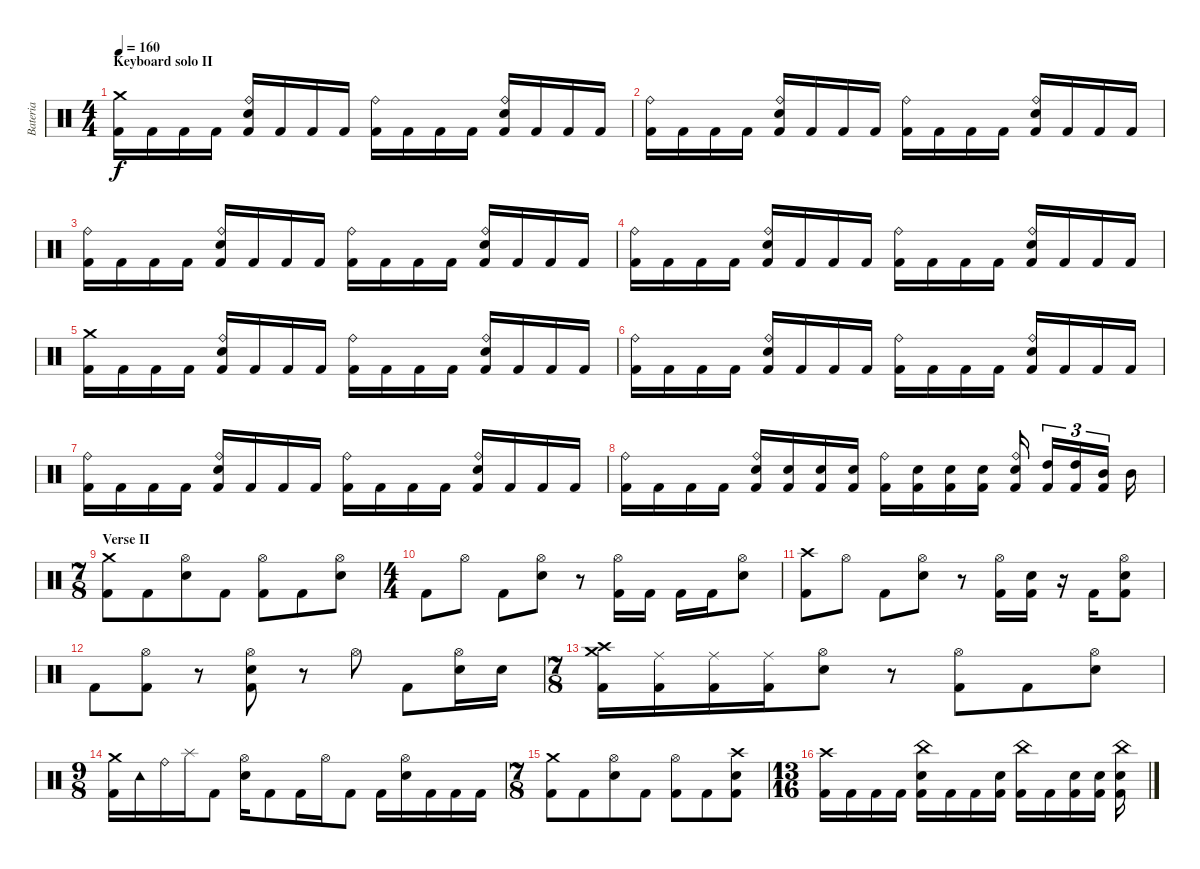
\track ("Bateria" "Bateria") {instrument percussion}
\staff {score}
\articulation defaults
\ts (4 4)
\section ("" "Keyboard solo II")
\tempo 160
\clef neutral
\ks c
("Crash medium (hit)" "Kick (hit) 2").16{dy f} "Kick (hit) 2".16 "Kick (hit) 2".16 "Kick (hit) 2".16 ("Ride (bell)" "Electric Snare (hit)" "Kick (hit) 2").16 "Kick (hit) 2".16 "Kick (hit) 2".16 "Kick (hit) 2".16 ("Ride (bell)" "Kick (hit) 2").16 "Kick (hit) 2".16 "Kick (hit) 2".16 "Kick (hit) 2".16 ("Ride (bell)" "Electric Snare (hit)" "Kick (hit) 2").16 "Kick (hit) 2".16 "Kick (hit) 2".16 "Kick (hit) 2".16 |
("Ride (bell)" "Kick (hit) 2").16 "Kick (hit) 2".16 "Kick (hit) 2".16 "Kick (hit) 2".16 ("Ride (bell)" "Electric Snare (hit)" "Kick (hit) 2").16 "Kick (hit) 2".16 "Kick (hit) 2".16 "Kick (hit) 2".16 ("Ride (bell)" "Kick (hit) 2").16 "Kick (hit) 2".16 "Kick (hit) 2".16 "Kick (hit) 2".16 ("Ride (bell)" "Electric Snare (hit)" "Kick (hit) 2").16 "Kick (hit) 2".16 "Kick (hit) 2".16 "Kick (hit) 2".16 |
("Ride (bell)" "Kick (hit) 2").16 "Kick (hit) 2".16 "Kick (hit) 2".16 "Kick (hit) 2".16 ("Ride (bell)" "Electric Snare (hit)" "Kick (hit) 2").16 "Kick (hit) 2".16 "Kick (hit) 2".16 "Kick (hit) 2".16 ("Ride (bell)" "Kick (hit) 2").16 "Kick (hit) 2".16 "Kick (hit) 2".16 "Kick (hit) 2".16 ("Ride (bell)" "Electric Snare (hit)" "Kick (hit) 2").16 "Kick (hit) 2".16 "Kick (hit) 2".16 "Kick (hit) 2".16 |
("Ride (bell)" "Kick (hit) 2").16 "Kick (hit) 2".16 "Kick (hit) 2".16 "Kick (hit) 2".16 ("Ride (bell)" "Electric Snare (hit)" "Kick (hit) 2").16 "Kick (hit) 2".16 "Kick (hit) 2".16 "Kick (hit) 2".16 ("Ride (bell)" "Kick (hit) 2").16 "Kick (hit) 2".16 "Kick (hit) 2".16 "Kick (hit) 2".16 ("Ride (bell)" "Electric Snare (hit)" "Kick (hit) 2").16 "Kick (hit) 2".16 "Kick (hit) 2".16 "Kick (hit) 2".16 |
("Crash medium (hit)" "Kick (hit) 2").16 "Kick (hit) 2".16 "Kick (hit) 2".16 "Kick (hit) 2".16 ("Ride (bell)" "Electric Snare (hit)" "Kick (hit) 2").16 "Kick (hit) 2".16 "Kick (hit) 2".16 "Kick (hit) 2".16 ("Ride (bell)" "Kick (hit) 2").16 "Kick (hit) 2".16 "Kick (hit) 2".16 "Kick (hit) 2".16 ("Ride (bell)" "Electric Snare (hit)" "Kick (hit) 2").16 "Kick (hit) 2".16 "Kick (hit) 2".16 "Kick (hit) 2".16 |
("Ride (bell)" "Kick (hit) 2").16 "Kick (hit) 2".16 "Kick (hit) 2".16 "Kick (hit) 2".16 ("Ride (bell)" "Electric Snare (hit)" "Kick (hit) 2").16 "Kick (hit) 2".16 "Kick (hit) 2".16 "Kick (hit) 2".16 ("Ride (bell)" "Kick (hit) 2").16 "Kick (hit) 2".16 "Kick (hit) 2".16 "Kick (hit) 2".16 ("Ride (bell)" "Electric Snare (hit)" "Kick (hit) 2").16 "Kick (hit) 2".16 "Kick (hit) 2".16 "Kick (hit) 2".16 |
("Ride (bell)" "Kick (hit) 2").16 "Kick (hit) 2".16 "Kick (hit) 2".16 "Kick (hit) 2".16 ("Ride (bell)" "Electric Snare (hit)" "Kick (hit) 2").16 "Kick (hit) 2".16 "Kick (hit) 2".16 "Kick (hit) 2".16 ("Ride (bell)" "Kick (hit) 2").16 "Kick (hit) 2".16 "Kick (hit) 2".16 "Kick (hit) 2".16 ("Ride (bell)" "Electric Snare (hit)" "Kick (hit) 2").16 "Kick (hit) 2".16 "Kick (hit) 2".16 "Kick (hit) 2".16 |
("Ride (bell)" "Kick (hit) 2").16 "Kick (hit) 2".16 "Kick (hit) 2".16 "Kick (hit) 2".16 ("Ride (bell)" "Electric Snare (hit)" "Kick (hit) 2").16 ("Electric Snare (hit)" "Kick (hit) 2").16 ("Electric Snare (hit)" "Kick (hit) 2").16 ("Electric Snare (hit)" "Kick (hit) 2").16 ("Ride (bell)" "Kick (hit) 2").16 ("Electric Snare (hit)" "Kick (hit) 2").16 ("Electric Snare (hit)" "Kick (hit) 2").16 ("Electric Snare (hit)" "Kick (hit) 2").16 ("Ride (bell)" "Electric Snare (hit)" "Kick (hit) 2").16 ("High Tom (hit)" "Kick (hit) 2").16{tu (3 2)} ("High Tom (hit)" "Kick (hit) 2").16{tu (3 2)} ("Mid Tom (hit)" "Kick (hit) 2").16{tu (3 2)} "Mid Tom (hit)".16 |
\ts (7 8)
\section ("" "Verse II")
("Crash medium (hit)" "Kick (hit) 2").8 "Kick (hit) 2".8 ("Hi-Hat (open)" "Electric Snare (hit)").8 "Kick (hit) 2".8 ("Hi-Hat (open)" "Kick (hit) 2").8 "Kick (hit) 2".8 ("Hi-Hat (open)" "Electric Snare (hit)").8 |
\ts (4 4)
"Kick (hit) 2".8 "Hi-Hat (open)".8 "Kick (hit) 2".8 ("Hi-Hat (open)" "Electric Snare (hit)").8 r.8 ("Hi-Hat (open)" "Kick (hit) 2").16 "Kick (hit) 2".16 "Kick (hit) 2".16 "Kick (hit) 2".16 ("Hi-Hat (open)" "Electric Snare (hit)").8 |
("Crash high (hit)" "Kick (hit) 2").8 "Hi-Hat (open)".8 "Kick (hit) 2".8 ("Hi-Hat (open)" "Electric Snare (hit)").8 r.8 ("Hi-Hat (open)" "Kick (hit) 2").16 ("Electric Snare (hit)" "Kick (hit) 2").16 r.16 "Kick (hit) 2".16 ("Hi-Hat (open)" "Electric Snare (hit)" "Kick (hit) 2").8 |
"Kick (hit) 2".8 ("Hi-Hat (open)" "Kick (hit) 2").8 r.8 ("Hi-Hat (open)" "Electric Snare (hit)" "Kick (hit) 2").8 r.8 "Hi-Hat (open)".8 "Kick (hit) 2".8 ("Hi-Hat (open)" "Electric Snare (hit)").16 "Electric Snare (hit)".16 |
\ts (7 8)
("Crash medium (hit)" "Crash high (hit)" "Kick (hit) 2").16 ("Ride (middle)" "Kick (hit) 2").16 ("Ride (middle)" "Kick (hit) 2").16 ("Ride (middle)" "Kick (hit) 2").16 ("Hi-Hat (open)" "Electric Snare (hit)").8 r.8 ("Hi-Hat (open)" "Kick (hit) 2").8 "Kick (hit) 2".8 ("Hi-Hat (open)" "Electric Snare (hit)").8 |
\ts (9 8)
("Crash medium (hit)" "Kick (hit) 2").16 "Tambourine (hit)".16 "Ride (bell)".16 "Splash (hit)".16 "Kick (hit) 2".8 ("Hi-Hat (open)" "Electric Snare (hit)").16 "Kick (hit) 2".8 "Kick (hit) 2".16 "Hi-Hat (open)".16 "Kick (hit) 2".8 "Kick (hit) 2".16 ("Hi-Hat (open)" "Electric Snare (hit)").16 "Kick (hit) 2".16 "Kick (hit) 2".16 "Kick (hit) 2".16 |
\ts (7 8)
("Crash medium (hit)" "Kick (hit) 2").8 "Kick (hit) 2".8 ("Hi-Hat (open)" "Electric Snare (hit)").8 "Kick (hit) 2".8 ("Hi-Hat (open)" "Kick (hit) 2").8 "Kick (hit) 2".8 ("Crash high (hit)" "Electric Snare (hit)" "Kick (hit) 2").8 |
\ts (13 16)
("Crash high (hit)" "Kick (hit) 2").16 "Kick (hit) 2".16 "Kick (hit) 2".16 "Kick (hit) 2".16 ("China (hit)" "Electric Snare (hit)" "Kick (hit) 2").16 "Kick (hit) 2".16 "Kick (hit) 2".16 ("Electric Snare (hit)" "Kick (hit) 2").16 ("China (hit)" "Kick (hit) 2").16 "Kick (hit) 2".16 ("Electric Snare (hit)" "Kick (hit) 2").16 ("Electric Snare (hit)" "Kick (hit) 2").16 ("China (hit)" "Electric Snare (hit)" "Kick (hit) 2").16
